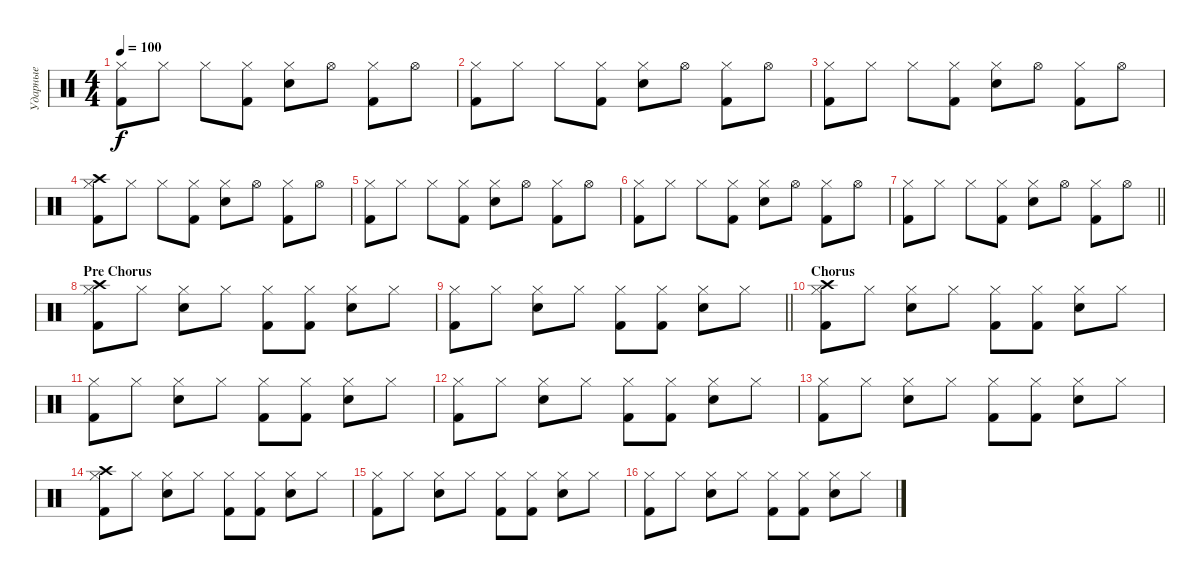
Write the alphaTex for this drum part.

\track ("Ударные" "Ударные") {instrument percussion}
\staff {score}
\articulation defaults
\ts (4 4)
\tempo 100
\clef neutral
\ks c
("Hi-Hat (closed)" "Kick (hit) 2").8{dy f} "Hi-Hat (closed)".8 "Hi-Hat (closed)".8 ("Hi-Hat (closed)" "Kick (hit) 2").8 ("Hi-Hat (closed)" "Electric Snare (hit)").8 "Hi-Hat (open)".8 ("Hi-Hat (closed)" "Kick (hit) 2").8 "Hi-Hat (open)".8 |
("Hi-Hat (closed)" "Kick (hit) 2").8 "Hi-Hat (closed)".8 "Hi-Hat (closed)".8 ("Hi-Hat (closed)" "Kick (hit) 2").8 ("Hi-Hat (closed)" "Electric Snare (hit)").8 "Hi-Hat (open)".8 ("Hi-Hat (closed)" "Kick (hit) 2").8 "Hi-Hat (open)".8 |
("Hi-Hat (closed)" "Kick (hit) 2").8 "Hi-Hat (closed)".8 "Hi-Hat (closed)".8 ("Hi-Hat (closed)" "Kick (hit) 2").8 ("Hi-Hat (closed)" "Electric Snare (hit)").8 "Hi-Hat (open)".8 ("Hi-Hat (closed)" "Kick (hit) 2").8 "Hi-Hat (open)".8 |
("Crash high (hit)" "Hi-Hat (closed)" "Kick (hit) 2").8 "Hi-Hat (closed)".8 "Hi-Hat (closed)".8 ("Hi-Hat (closed)" "Kick (hit) 2").8 ("Hi-Hat (closed)" "Electric Snare (hit)").8 "Hi-Hat (open)".8 ("Hi-Hat (closed)" "Kick (hit) 2").8 "Hi-Hat (open)".8 |
("Hi-Hat (closed)" "Kick (hit) 2").8 "Hi-Hat (closed)".8 "Hi-Hat (closed)".8 ("Hi-Hat (closed)" "Kick (hit) 2").8 ("Hi-Hat (closed)" "Electric Snare (hit)").8 "Hi-Hat (open)".8 ("Hi-Hat (closed)" "Kick (hit) 2").8 "Hi-Hat (open)".8 |
("Hi-Hat (closed)" "Kick (hit) 2").8 "Hi-Hat (closed)".8 "Hi-Hat (closed)".8 ("Hi-Hat (closed)" "Kick (hit) 2").8 ("Hi-Hat (closed)" "Electric Snare (hit)").8 "Hi-Hat (open)".8 ("Hi-Hat (closed)" "Kick (hit) 2").8 "Hi-Hat (open)".8 |
\barLineRight lightlight
("Hi-Hat (closed)" "Kick (hit) 2").8 "Hi-Hat (closed)".8 "Hi-Hat (closed)".8 ("Hi-Hat (closed)" "Kick (hit) 2").8 ("Hi-Hat (closed)" "Electric Snare (hit)").8 "Hi-Hat (open)".8 ("Hi-Hat (closed)" "Kick (hit) 2").8 "Hi-Hat (open)".8 |
\section ("" "Pre Chorus")
("Hi-Hat (closed)" "Kick (hit) 2" "Crash high (hit)").8 "Hi-Hat (closed)".8 ("Hi-Hat (closed)" "Electric Snare (hit)").8 "Hi-Hat (closed)".8 ("Hi-Hat (closed)" "Kick (hit) 2").8 ("Hi-Hat (closed)" "Kick (hit) 2").8 ("Hi-Hat (closed)" "Electric Snare (hit)").8 "Hi-Hat (closed)".8 |
\barLineRight lightlight
("Hi-Hat (closed)" "Kick (hit) 2").8 "Hi-Hat (closed)".8 ("Hi-Hat (closed)" "Electric Snare (hit)").8 "Hi-Hat (closed)".8 ("Hi-Hat (closed)" "Kick (hit) 2").8 ("Hi-Hat (closed)" "Kick (hit) 2").8 ("Hi-Hat (closed)" "Electric Snare (hit)").8 "Hi-Hat (closed)".8 |
\section ("" "Chorus")
("Hi-Hat (closed)" "Crash high (hit)" "Kick (hit) 2").8 "Hi-Hat (closed)".8 ("Hi-Hat (closed)" "Electric Snare (hit)").8 "Hi-Hat (closed)".8 ("Hi-Hat (closed)" "Kick (hit) 2").8 ("Hi-Hat (closed)" "Kick (hit) 2").8 ("Hi-Hat (closed)" "Electric Snare (hit)").8 "Hi-Hat (closed)".8 |
("Hi-Hat (closed)" "Kick (hit) 2").8 "Hi-Hat (closed)".8 ("Hi-Hat (closed)" "Electric Snare (hit)").8 "Hi-Hat (closed)".8 ("Hi-Hat (closed)" "Kick (hit) 2").8 ("Hi-Hat (closed)" "Kick (hit) 2").8 ("Hi-Hat (closed)" "Electric Snare (hit)").8 "Hi-Hat (closed)".8 |
("Hi-Hat (closed)" "Kick (hit) 2").8 "Hi-Hat (closed)".8 ("Hi-Hat (closed)" "Electric Snare (hit)").8 "Hi-Hat (closed)".8 ("Hi-Hat (closed)" "Kick (hit) 2").8 ("Hi-Hat (closed)" "Kick (hit) 2").8 ("Hi-Hat (closed)" "Electric Snare (hit)").8 "Hi-Hat (closed)".8 |
("Hi-Hat (closed)" "Kick (hit) 2").8 "Hi-Hat (closed)".8 ("Hi-Hat (closed)" "Electric Snare (hit)").8 "Hi-Hat (closed)".8 ("Hi-Hat (closed)" "Kick (hit) 2").8 ("Hi-Hat (closed)" "Kick (hit) 2").8 ("Hi-Hat (closed)" "Electric Snare (hit)").8 "Hi-Hat (closed)".8 |
("Hi-Hat (closed)" "Crash high (hit)" "Kick (hit) 2").8 "Hi-Hat (closed)".8 ("Hi-Hat (closed)" "Electric Snare (hit)").8 "Hi-Hat (closed)".8 ("Hi-Hat (closed)" "Kick (hit) 2").8 ("Hi-Hat (closed)" "Kick (hit) 2").8 ("Hi-Hat (closed)" "Electric Snare (hit)").8 "Hi-Hat (closed)".8 |
("Hi-Hat (closed)" "Kick (hit) 2").8 "Hi-Hat (closed)".8 ("Hi-Hat (closed)" "Electric Snare (hit)").8 "Hi-Hat (closed)".8 ("Hi-Hat (closed)" "Kick (hit) 2").8 ("Hi-Hat (closed)" "Kick (hit) 2").8 ("Hi-Hat (closed)" "Electric Snare (hit)").8 "Hi-Hat (closed)".8 |
("Hi-Hat (closed)" "Kick (hit) 2").8 "Hi-Hat (closed)".8 ("Hi-Hat (closed)" "Electric Snare (hit)").8 "Hi-Hat (closed)".8 ("Hi-Hat (closed)" "Kick (hit) 2").8 ("Hi-Hat (closed)" "Kick (hit) 2").8 ("Hi-Hat (closed)" "Electric Snare (hit)").8 "Hi-Hat (closed)".8
